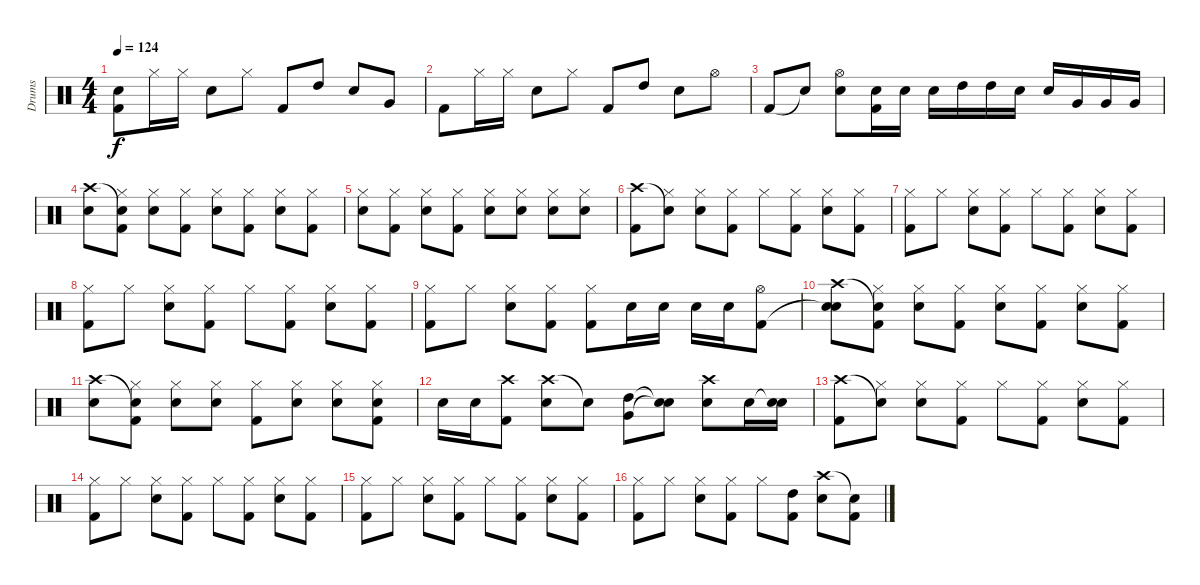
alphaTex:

\track ("Drums" "Drums") {instrument percussion}
\staff {score}
\articulation defaults
\ts (4 4)
\tempo 124
\clef neutral
\ks c
("Snare (hit)"{t} "Kick (hit) 2").8{dy f} "Hi-Hat (closed)".16 "Hi-Hat (closed)".16 "Snare (hit) 2".8 "Hi-Hat (closed)".8 "Kick (hit) 2".8 "High Tom (hit)".8 "Snare (hit) 2".8 "Very Low Tom (hit)".8 |
"Kick (hit) 2".8 "Hi-Hat (closed)".16 "Hi-Hat (closed)".16 "Snare (hit) 2".8 "Hi-Hat (closed)".8 "Kick (hit) 2".8 "High Tom (hit)".8 "Snare (hit) 2".8 "Hi-Hat (open)".8 |
"Kick (hit) 2".8 "Snare (hit)"{t}.8 ("Hi-Hat (open)" "Snare (hit) 2").8 ("Snare (hit) 2" "Kick (hit) 2").16 "Snare (hit) 2".16 "Snare (hit) 2".16 "High Tom (hit)".16 "High Tom (hit)".16 "Snare (hit) 2".16 "Snare (hit) 2".16 "Very Low Tom (hit)".16 "Very Low Tom (hit)".16 "Very Low Tom (hit)".16 |
("Crash high (hit)" "Snare (hit) 2").8 ("Snare (hit)"{t} "Hi-Hat (closed)" "Kick (hit) 2").8 ("Hi-Hat (closed)" "Snare (hit) 2").8 ("Hi-Hat (closed)" "Kick (hit) 2").8 ("Hi-Hat (closed)" "Snare (hit) 2").8 ("Hi-Hat (closed)" "Kick (hit) 2").8 ("Hi-Hat (closed)" "Snare (hit) 2").8 ("Hi-Hat (closed)" "Kick (hit) 2").8 |
("Hi-Hat (closed)" "Snare (hit) 2").8 ("Hi-Hat (closed)" "Kick (hit) 2").8 ("Hi-Hat (closed)" "Snare (hit) 2").8 ("Hi-Hat (closed)" "Kick (hit) 2").8 ("Hi-Hat (closed)" "Snare (hit) 2").8 ("Hi-Hat (closed)" "Snare (hit) 2").8 ("Hi-Hat (closed)" "Snare (hit) 2").8 ("Hi-Hat (closed)" "Snare (hit) 2").8 |
("Crash high (hit)" "Kick (hit) 2").8 ("Snare (hit)"{t} "Hi-Hat (closed)").8 ("Hi-Hat (closed)" "Snare (hit) 2").8 ("Hi-Hat (closed)" "Kick (hit) 2").8 "Hi-Hat (closed)".8 ("Hi-Hat (closed)" "Kick (hit) 2").8 ("Hi-Hat (closed)" "Snare (hit) 2").8 ("Hi-Hat (closed)" "Kick (hit) 2").8 |
("Hi-Hat (closed)" "Kick (hit) 2").8 "Hi-Hat (closed)".8 ("Hi-Hat (closed)" "Snare (hit) 2").8 ("Hi-Hat (closed)" "Kick (hit) 2").8 "Hi-Hat (closed)".8 ("Hi-Hat (closed)" "Kick (hit) 2").8 ("Hi-Hat (closed)" "Snare (hit) 2").8 ("Hi-Hat (closed)" "Kick (hit) 2").8 |
("Hi-Hat (closed)" "Kick (hit) 2").8 "Hi-Hat (closed)".8 ("Hi-Hat (closed)" "Snare (hit) 2").8 ("Hi-Hat (closed)" "Kick (hit) 2").8 "Hi-Hat (closed)".8 ("Hi-Hat (closed)" "Kick (hit) 2").8 ("Hi-Hat (closed)" "Snare (hit) 2").8 ("Hi-Hat (closed)" "Kick (hit) 2").8 |
("Hi-Hat (closed)" "Kick (hit) 2").8 "Hi-Hat (closed)".8 ("Hi-Hat (closed)" "Snare (hit) 2").8 ("Hi-Hat (closed)" "Kick (hit) 2").8 ("Hi-Hat (closed)" "Kick (hit) 2").8 "Snare (hit) 2".16 "Snare (hit) 2".16 "Snare (hit) 2".16 "Snare (hit) 2".16 ("Hi-Hat (open)" "Kick (hit) 2").8 |
("Crash high (hit)" "Snare (hit)"{t} "Snare (hit) 2").8 ("Snare (hit)"{t} "Hi-Hat (closed)" "Kick (hit) 2").8 ("Hi-Hat (closed)" "Snare (hit) 2").8 ("Hi-Hat (closed)" "Kick (hit) 2").8 ("Hi-Hat (closed)" "Snare (hit) 2").8 ("Hi-Hat (closed)" "Kick (hit) 2").8 ("Hi-Hat (closed)" "Snare (hit) 2").8 ("Hi-Hat (closed)" "Kick (hit) 2").8 |
("Crash high (hit)" "Snare (hit) 2").8 ("Snare (hit)"{t} "Hi-Hat (closed)" "Kick (hit) 2").8 ("Hi-Hat (closed)" "Snare (hit) 2").8 ("Hi-Hat (closed)" "Snare (hit) 2").8 ("Hi-Hat (closed)" "Kick (hit) 2").8 ("Hi-Hat (closed)" "Snare (hit) 2").8 ("Hi-Hat (closed)" "Snare (hit) 2").8 ("Hi-Hat (closed)" "Snare (hit) 2" "Kick (hit) 2").8 |
"Snare (hit) 2".16 "Snare (hit) 2".16 ("Crash high (hit)" "Kick (hit) 2").8 ("Crash high (hit)" "Snare (hit) 2").8 "Snare (hit)"{t}.8 ("High Tom (hit)" "Very Low Tom (hit)").8 ("Snare (hit)"{t} "Snare (hit)"{t}).8 ("Crash high (hit)" "Snare (hit) 2").8 "Snare (hit) 2".16 ("Snare (hit)"{t} "Snare (hit) 2").16 |
("Crash high (hit)" "Kick (hit) 2").8 ("Snare (hit)"{t} "Hi-Hat (closed)").8 ("Hi-Hat (closed)" "Snare (hit) 2").8 ("Hi-Hat (closed)" "Kick (hit) 2").8 "Hi-Hat (closed)".8 ("Hi-Hat (closed)" "Kick (hit) 2").8 ("Hi-Hat (closed)" "Snare (hit) 2").8 ("Hi-Hat (closed)" "Kick (hit) 2").8 |
("Hi-Hat (closed)" "Kick (hit) 2").8 "Hi-Hat (closed)".8 ("Hi-Hat (closed)" "Snare (hit) 2").8 ("Hi-Hat (closed)" "Kick (hit) 2").8 "Hi-Hat (closed)".8 ("Hi-Hat (closed)" "Kick (hit) 2").8 ("Hi-Hat (closed)" "Snare (hit) 2").8 ("Hi-Hat (closed)" "Kick (hit) 2").8 |
("Hi-Hat (closed)" "Kick (hit) 2").8 "Hi-Hat (closed)".8 ("Hi-Hat (closed)" "Snare (hit) 2").8 ("Hi-Hat (closed)" "Kick (hit) 2").8 "Hi-Hat (closed)".8 ("Hi-Hat (closed)" "Kick (hit) 2").8 ("Hi-Hat (closed)" "Snare (hit) 2").8 ("Hi-Hat (closed)" "Kick (hit) 2").8 |
("Hi-Hat (closed)" "Kick (hit) 2").8 "Hi-Hat (closed)".8 ("Hi-Hat (closed)" "Snare (hit) 2").8 ("Hi-Hat (closed)" "Kick (hit) 2").8 "Hi-Hat (closed)".8 ("High Tom (hit)" "Kick (hit) 2").8 ("Crash high (hit)" "Snare (hit) 2").8 ("Snare (hit)"{t} "Kick (hit) 2").8
